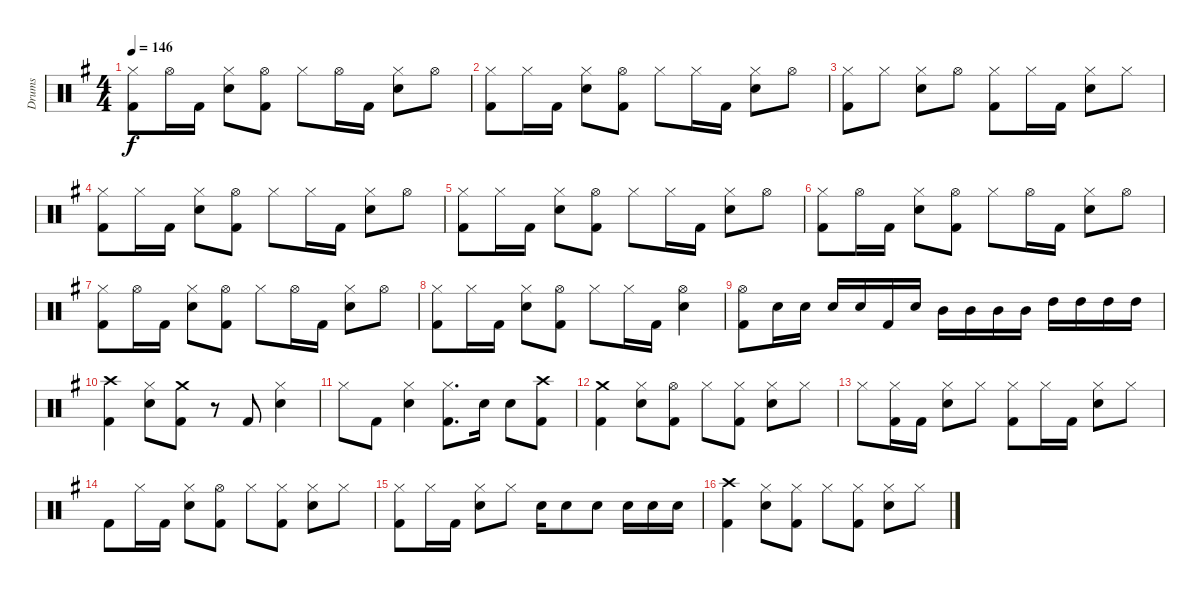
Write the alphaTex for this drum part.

\track ("Drums" "Drums") {instrument percussion}
\staff {score}
\articulation defaults
\ts (4 4)
\tempo 146
\clef neutral
\ks g
("Kick (hit) 2" "Hi-Hat (closed)").8{dy f} "Hi-Hat (open)".16 "Kick (hit) 2".16 ("Snare (hit) 2" "Hi-Hat (closed)").8 ("Kick (hit) 2" "Hi-Hat (open)").8 "Hi-Hat (closed)".8 "Hi-Hat (open)".16 "Kick (hit) 2".16 ("Snare (hit) 2" "Hi-Hat (closed)").8 "Hi-Hat (open)".8 |
("Kick (hit) 2" "Hi-Hat (closed)").8 "Hi-Hat (closed)".16 "Kick (hit) 2".16 ("Snare (hit) 2" "Hi-Hat (closed)").8 ("Kick (hit) 2" "Hi-Hat (open)").8 "Hi-Hat (closed)".8 "Hi-Hat (closed)".16 "Kick (hit) 2".16 ("Snare (hit) 2" "Hi-Hat (closed)").8 "Hi-Hat (open)".8 |
("Kick (hit) 2" "Hi-Hat (closed)").8 "Hi-Hat (closed)".8 ("Snare (hit) 2" "Hi-Hat (closed)").8 "Hi-Hat (open)".8 ("Kick (hit) 2" "Hi-Hat (closed)").8 "Hi-Hat (closed)".16 "Kick (hit) 2".16 ("Snare (hit) 2" "Hi-Hat (closed)").8 "Hi-Hat (closed)".8 |
("Kick (hit) 2" "Hi-Hat (closed)").8 "Hi-Hat (closed)".16 "Kick (hit) 2".16 ("Snare (hit) 2" "Hi-Hat (closed)").8 ("Kick (hit) 2" "Hi-Hat (open)").8 "Hi-Hat (closed)".8 "Hi-Hat (closed)".16 "Kick (hit) 2".16 ("Snare (hit) 2" "Hi-Hat (closed)").8 "Hi-Hat (open)".8 |
("Kick (hit) 2" "Hi-Hat (closed)").8 "Hi-Hat (closed)".16 "Kick (hit) 2".16 ("Snare (hit) 2" "Hi-Hat (closed)").8 ("Kick (hit) 2" "Hi-Hat (open)").8 "Hi-Hat (closed)".8 "Hi-Hat (closed)".16 "Kick (hit) 2".16 ("Snare (hit) 2" "Hi-Hat (closed)").8 "Hi-Hat (open)".8 |
("Kick (hit) 2" "Hi-Hat (closed)").8 "Hi-Hat (open)".16 "Kick (hit) 2".16 ("Snare (hit) 2" "Hi-Hat (closed)").8 ("Kick (hit) 2" "Hi-Hat (open)").8 "Hi-Hat (closed)".8 "Hi-Hat (open)".16 "Kick (hit) 2".16 ("Snare (hit) 2" "Hi-Hat (closed)").8 "Hi-Hat (open)".8 |
("Kick (hit) 2" "Hi-Hat (closed)").8 "Hi-Hat (open)".16 "Kick (hit) 2".16 ("Snare (hit) 2" "Hi-Hat (closed)").8 ("Kick (hit) 2" "Hi-Hat (open)").8 "Hi-Hat (closed)".8 "Hi-Hat (open)".16 "Kick (hit) 2".16 ("Snare (hit) 2" "Hi-Hat (closed)").8 "Hi-Hat (open)".8 |
("Kick (hit) 2" "Hi-Hat (closed)").8 "Hi-Hat (closed)".16 "Kick (hit) 2".16 ("Snare (hit) 2" "Hi-Hat (closed)").8 ("Kick (hit) 2" "Hi-Hat (open)").8 "Hi-Hat (closed)".8 "Hi-Hat (closed)".16 "Kick (hit) 2".16 ("Snare (hit) 2" "Hi-Hat (open)").4 |
("Kick (hit) 2" "Hi-Hat (open)").8 "Snare (hit) 2".16 "Snare (hit) 2".16 "Snare (hit) 2".16 "Snare (hit) 2".16 "Kick (hit) 2".16 "Snare (hit) 2".16 "Mid Tom (hit)".16 "Mid Tom (hit)".16 "Mid Tom (hit)".16 "Mid Tom (hit)".16 "High Tom (hit)".16 "High Tom (hit)".16 "High Tom (hit)".16 "High Tom (hit)".16 |
("Kick (hit) 2" "Crash high (hit)").4 ("Snare (hit) 2" "Hi-Hat (closed)").8 ("Kick (hit) 2" "Crash medium (hit)").8 r.8 "Kick (hit) 2".8 ("Snare (hit) 2" "Hi-Hat (closed)").4 |
"Hi-Hat (closed)".8 "Kick (hit) 2".8 ("Snare (hit) 2" "Hi-Hat (closed)").4 ("Kick (hit) 2" "Hi-Hat (closed)").8{d} "Snare (hit) 2".16 "Snare (hit) 2".8 ("Kick (hit) 2" "Crash high (hit)").8 |
("Kick (hit) 2" "Crash medium (hit)").4 ("Snare (hit) 2" "Hi-Hat (closed)").8 ("Kick (hit) 2" "Hi-Hat (open)").8 "Hi-Hat (closed)".8 ("Kick (hit) 2" "Hi-Hat (closed)").8 ("Snare (hit) 2" "Hi-Hat (closed)").8 "Hi-Hat (closed)".8 |
"Hi-Hat (closed)".8 ("Kick (hit) 2" "Hi-Hat (closed)").16 "Kick (hit) 2".16 ("Snare (hit) 2" "Hi-Hat (closed)").8 "Hi-Hat (closed)".8 ("Kick (hit) 2" "Hi-Hat (closed)").8 "Hi-Hat (closed)".16 "Kick (hit) 2".16 ("Snare (hit) 2" "Hi-Hat (closed)").8 "Hi-Hat (closed)".8 |
"Kick (hit) 2".8 "Hi-Hat (closed)".16 "Kick (hit) 2".16 ("Snare (hit) 2" "Hi-Hat (closed)").8 ("Kick (hit) 2" "Hi-Hat (open)").8 "Hi-Hat (closed)".8 ("Kick (hit) 2" "Hi-Hat (closed)").8 ("Snare (hit) 2" "Hi-Hat (closed)").8 "Hi-Hat (closed)".8 |
("Kick (hit) 2" "Hi-Hat (closed)").8 "Hi-Hat (closed)".16 "Kick (hit) 2".16 ("Snare (hit) 2" "Hi-Hat (closed)").8 "Hi-Hat (closed)".8 "Snare (hit) 2".16 "Snare (hit) 2".8 "Snare (hit) 2".8 "Snare (hit) 2".16 "Snare (hit) 2".16 "Snare (hit) 2".16 |
("Kick (hit) 2" "Crash high (hit)").4 ("Snare (hit) 2" "Hi-Hat (closed)").8 ("Kick (hit) 2" "Hi-Hat (closed)").8 "Hi-Hat (closed)".8 ("Kick (hit) 2" "Hi-Hat (closed)").8 ("Snare (hit) 2" "Hi-Hat (closed)").8 "Hi-Hat (closed)".8
